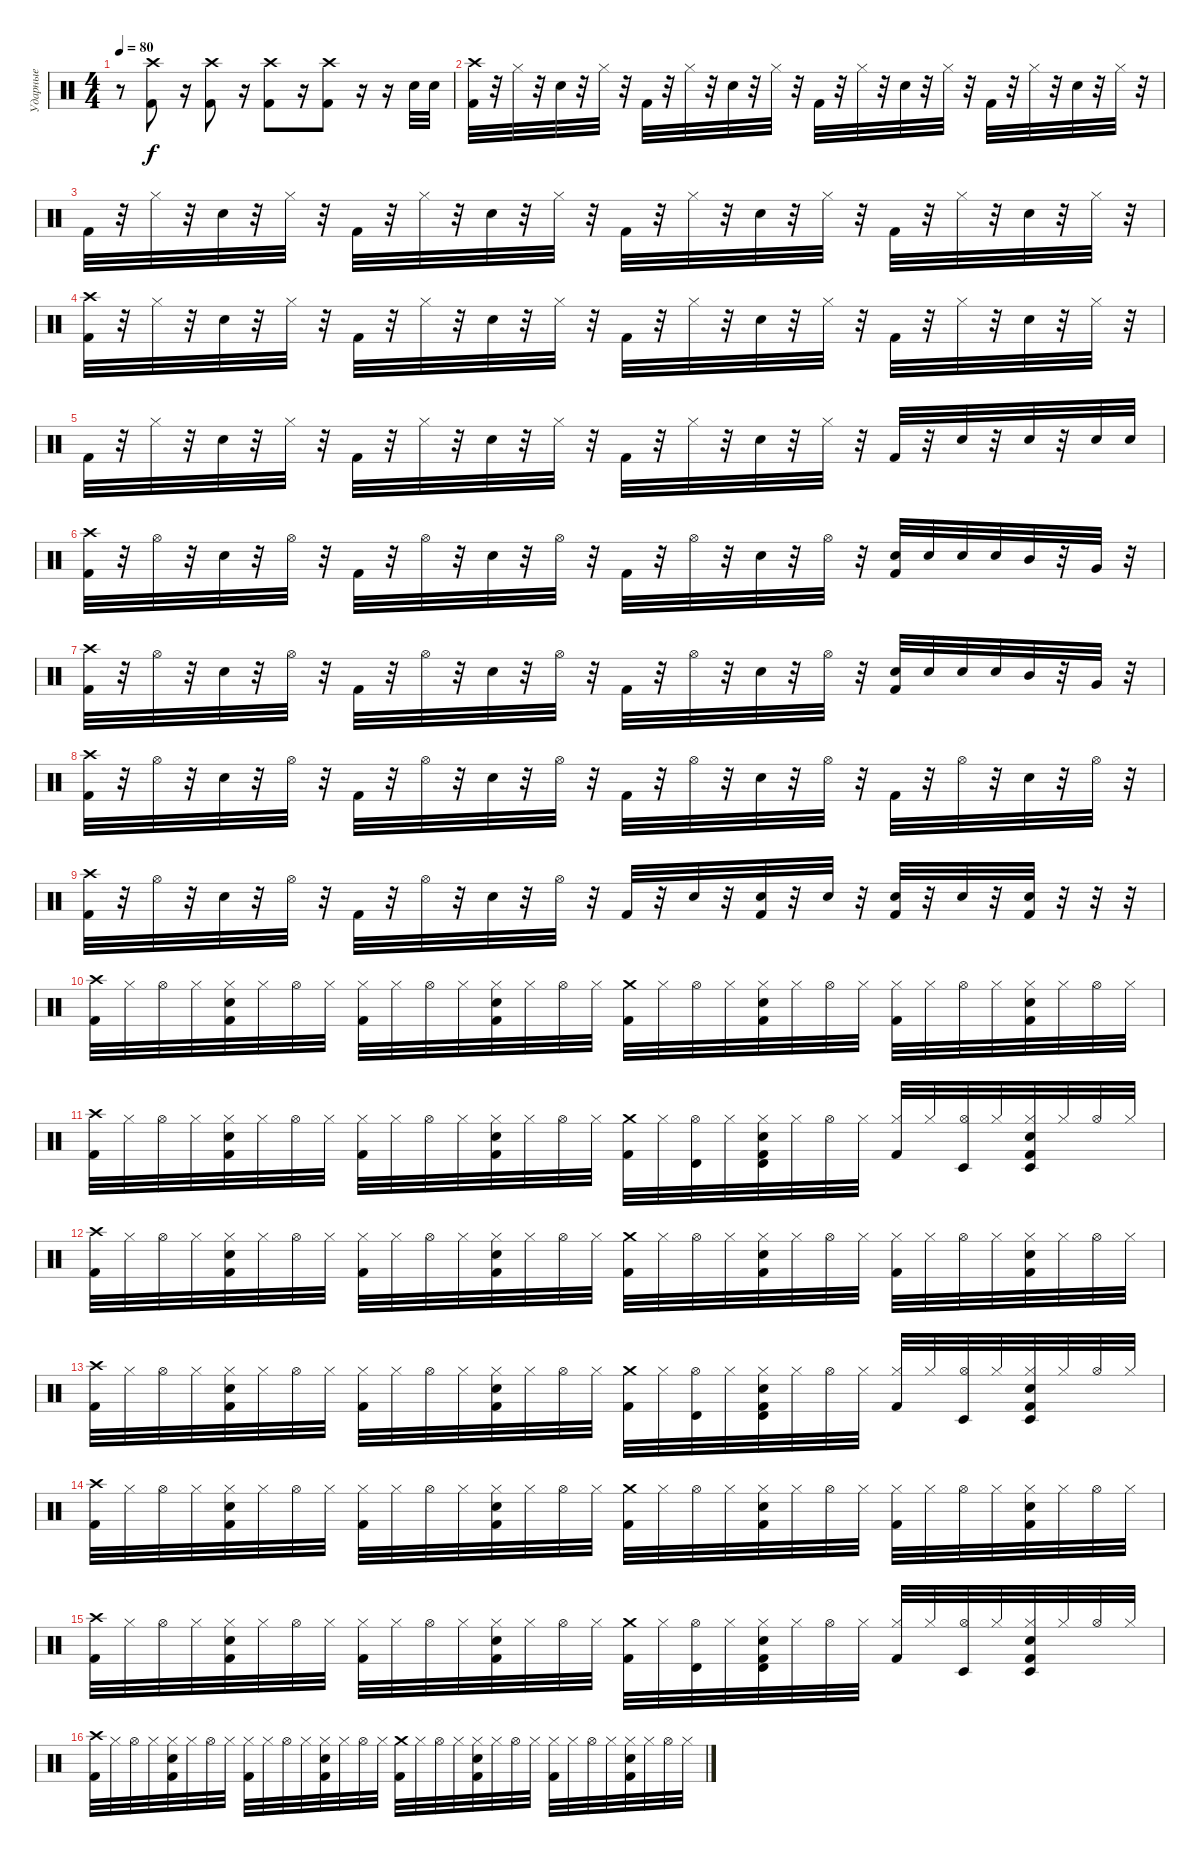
\track ("Ударные" "Ударные") {instrument percussion}
\staff {score}
\articulation defaults
\ts (4 4)
\tempo 80
\clef neutral
\ks c
r.8{dy f} ("Crash high (hit)" "Kick (hit) 2").8 r.16 ("Crash high (hit)" "Kick (hit) 2").8 r.16 ("Crash high (hit)" "Kick (hit) 2").8 r.16 ("Crash high (hit)" "Kick (hit) 2").8 r.16 r.16 "Snare (hit) 2".32 "Snare (hit) 2".32 |
("Crash high (hit)" "Kick (hit) 2").32 r.32 "Hi-Hat (closed)".32 r.32 "Snare (hit) 2".32 r.32 "Hi-Hat (closed)".32 r.32 "Kick (hit) 2".32 r.32 "Hi-Hat (closed)".32 r.32 "Snare (hit) 2".32 r.32 "Hi-Hat (closed)".32 r.32 "Kick (hit) 2".32 r.32 "Hi-Hat (closed)".32 r.32 "Snare (hit) 2".32 r.32 "Hi-Hat (closed)".32 r.32 "Kick (hit) 2".32 r.32 "Hi-Hat (closed)".32 r.32 "Snare (hit) 2".32 r.32 "Hi-Hat (closed)".32 r.32 |
"Kick (hit) 2".32 r.32 "Hi-Hat (closed)".32 r.32 "Snare (hit) 2".32 r.32 "Hi-Hat (closed)".32 r.32 "Kick (hit) 2".32 r.32 "Hi-Hat (closed)".32 r.32 "Snare (hit) 2".32 r.32 "Hi-Hat (closed)".32 r.32 "Kick (hit) 2".32 r.32 "Hi-Hat (closed)".32 r.32 "Snare (hit) 2".32 r.32 "Hi-Hat (closed)".32 r.32 "Kick (hit) 2".32 r.32 "Hi-Hat (closed)".32 r.32 "Snare (hit) 2".32 r.32 "Hi-Hat (closed)".32 r.32 |
("Crash high (hit)" "Kick (hit) 2").32 r.32 "Hi-Hat (closed)".32 r.32 "Snare (hit) 2".32 r.32 "Hi-Hat (closed)".32 r.32 "Kick (hit) 2".32 r.32 "Hi-Hat (closed)".32 r.32 "Snare (hit) 2".32 r.32 "Hi-Hat (closed)".32 r.32 "Kick (hit) 2".32 r.32 "Hi-Hat (closed)".32 r.32 "Snare (hit) 2".32 r.32 "Hi-Hat (closed)".32 r.32 "Kick (hit) 2".32 r.32 "Hi-Hat (closed)".32 r.32 "Snare (hit) 2".32 r.32 "Hi-Hat (closed)".32 r.32 |
"Kick (hit) 2".32 r.32 "Hi-Hat (closed)".32 r.32 "Snare (hit) 2".32 r.32 "Hi-Hat (closed)".32 r.32 "Kick (hit) 2".32 r.32 "Hi-Hat (closed)".32 r.32 "Snare (hit) 2".32 r.32 "Hi-Hat (closed)".32 r.32 "Kick (hit) 2".32 r.32 "Hi-Hat (closed)".32 r.32 "Snare (hit) 2".32 r.32 "Hi-Hat (closed)".32 r.32 "Kick (hit) 2".32 r.32 "Snare (hit) 2".32 r.32 "Snare (hit) 2".32 r.32 "Snare (hit) 2".32 "Snare (hit) 2".32 |
("Crash high (hit)" "Kick (hit) 2").32 r.32 "Hi-Hat (open)".32 r.32 "Snare (hit) 2".32 r.32 "Hi-Hat (open)".32 r.32 "Kick (hit) 2".32 r.32 "Hi-Hat (open)".32 r.32 "Snare (hit) 2".32 r.32 "Hi-Hat (open)".32 r.32 "Kick (hit) 2".32 r.32 "Hi-Hat (open)".32 r.32 "Snare (hit) 2".32 r.32 "Hi-Hat (open)".32 r.32 ("Snare (hit) 2" "Kick (hit) 2").32 "Snare (hit) 2".32 "Snare (hit) 2".32 "Snare (hit) 2".32 "Mid Tom (hit)".32 r.32 "Very Low Tom (hit)".32 r.32 |
("Crash high (hit)" "Kick (hit) 2").32 r.32 "Hi-Hat (open)".32 r.32 "Snare (hit) 2".32 r.32 "Hi-Hat (open)".32 r.32 "Kick (hit) 2".32 r.32 "Hi-Hat (open)".32 r.32 "Snare (hit) 2".32 r.32 "Hi-Hat (open)".32 r.32 "Kick (hit) 2".32 r.32 "Hi-Hat (open)".32 r.32 "Snare (hit) 2".32 r.32 "Hi-Hat (open)".32 r.32 ("Snare (hit) 2" "Kick (hit) 2").32 "Snare (hit) 2".32 "Snare (hit) 2".32 "Snare (hit) 2".32 "Mid Tom (hit)".32 r.32 "Very Low Tom (hit)".32 r.32 |
("Crash high (hit)" "Kick (hit) 2").32 r.32 "Hi-Hat (open)".32 r.32 "Snare (hit) 2".32 r.32 "Hi-Hat (open)".32 r.32 "Kick (hit) 2".32 r.32 "Hi-Hat (open)".32 r.32 "Snare (hit) 2".32 r.32 "Hi-Hat (open)".32 r.32 "Kick (hit) 2".32 r.32 "Hi-Hat (open)".32 r.32 "Snare (hit) 2".32 r.32 "Hi-Hat (open)".32 r.32 "Kick (hit) 2".32 r.32 "Hi-Hat (open)".32 r.32 "Snare (hit) 2".32 r.32 "Hi-Hat (open)".32 r.32 |
("Crash high (hit)" "Kick (hit) 2").32 r.32 "Hi-Hat (open)".32 r.32 "Snare (hit) 2".32 r.32 "Hi-Hat (open)".32 r.32 "Kick (hit) 2".32 r.32 "Hi-Hat (open)".32 r.32 "Snare (hit) 2".32 r.32 "Hi-Hat (open)".32 r.32 "Kick (hit) 2".32 r.32 "Snare (hit) 2".32 r.32 ("Snare (hit) 2" "Kick (hit) 2").32 r.32 "Snare (hit) 2".32 r.32 ("Snare (hit) 2" "Kick (hit) 2").32 r.32 "Snare (hit) 2".32 r.32 ("Snare (hit) 2" "Kick (hit) 2").32 r.32 r.32 r.32 |
("Crash high (hit)" "Kick (hit) 2").32 "Hi-Hat (closed)".32 "Hi-Hat (open)".32 "Hi-Hat (closed)".32 ("Hi-Hat (closed)" "Snare (hit) 2" "Kick (hit) 2").32 "Hi-Hat (closed)".32 "Hi-Hat (open)".32 "Hi-Hat (closed)".32 ("Hi-Hat (closed)" "Kick (hit) 2").32 "Hi-Hat (closed)".32 "Hi-Hat (open)".32 "Hi-Hat (closed)".32 ("Hi-Hat (closed)" "Snare (hit) 2" "Kick (hit) 2").32 "Hi-Hat (closed)".32 "Hi-Hat (open)".32 "Hi-Hat (closed)".32 ("Crash medium (hit)" "Kick (hit) 2").32 "Hi-Hat (closed)".32 "Hi-Hat (open)".32 "Hi-Hat (closed)".32 ("Hi-Hat (closed)" "Snare (hit) 2" "Kick (hit) 2").32 "Hi-Hat (closed)".32 "Hi-Hat (open)".32 "Hi-Hat (closed)".32 ("Hi-Hat (closed)" "Kick (hit) 2").32 "Hi-Hat (closed)".32 "Hi-Hat (open)".32 "Hi-Hat (closed)".32 ("Hi-Hat (closed)" "Snare (hit) 2" "Kick (hit) 2").32 "Hi-Hat (closed)".32 "Hi-Hat (open)".32 "Hi-Hat (closed)".32 |
("Crash high (hit)" "Kick (hit) 2").32 "Hi-Hat (closed)".32 "Hi-Hat (open)".32 "Hi-Hat (closed)".32 ("Hi-Hat (closed)" "Snare (hit) 2" "Kick (hit) 2").32 "Hi-Hat (closed)".32 "Hi-Hat (open)".32 "Hi-Hat (closed)".32 ("Hi-Hat (closed)" "Kick (hit) 2").32 "Hi-Hat (closed)".32 "Hi-Hat (open)".32 "Hi-Hat (closed)".32 ("Hi-Hat (closed)" "Snare (hit) 2" "Kick (hit) 2").32 "Hi-Hat (closed)".32 "Hi-Hat (open)".32 "Hi-Hat (closed)".32 ("Crash medium (hit)" "Kick (hit) 2").32 "Hi-Hat (closed)".32 ("Hi-Hat (open)" "Timbale high (hit)").32 "Hi-Hat (closed)".32 ("Hi-Hat (closed)" "Snare (hit) 2" "Kick (hit) 2" "Timbale high (hit)").32 "Hi-Hat (closed)".32 "Hi-Hat (open)".32 "Hi-Hat (closed)".32 ("Hi-Hat (closed)" "Kick (hit) 2").32 "Hi-Hat (closed)".32 ("Hi-Hat (open)" "Timbale low (hit)").32 "Hi-Hat (closed)".32 ("Hi-Hat (closed)" "Snare (hit) 2" "Kick (hit) 2" "Timbale low (hit)").32 "Hi-Hat (closed)".32 "Hi-Hat (open)".32 "Hi-Hat (closed)".32 |
("Crash high (hit)" "Kick (hit) 2").32 "Hi-Hat (closed)".32 "Hi-Hat (open)".32 "Hi-Hat (closed)".32 ("Hi-Hat (closed)" "Snare (hit) 2" "Kick (hit) 2").32 "Hi-Hat (closed)".32 "Hi-Hat (open)".32 "Hi-Hat (closed)".32 ("Hi-Hat (closed)" "Kick (hit) 2").32 "Hi-Hat (closed)".32 "Hi-Hat (open)".32 "Hi-Hat (closed)".32 ("Hi-Hat (closed)" "Snare (hit) 2" "Kick (hit) 2").32 "Hi-Hat (closed)".32 "Hi-Hat (open)".32 "Hi-Hat (closed)".32 ("Crash medium (hit)" "Kick (hit) 2").32 "Hi-Hat (closed)".32 "Hi-Hat (open)".32 "Hi-Hat (closed)".32 ("Hi-Hat (closed)" "Snare (hit) 2" "Kick (hit) 2").32 "Hi-Hat (closed)".32 "Hi-Hat (open)".32 "Hi-Hat (closed)".32 ("Hi-Hat (closed)" "Kick (hit) 2").32 "Hi-Hat (closed)".32 "Hi-Hat (open)".32 "Hi-Hat (closed)".32 ("Hi-Hat (closed)" "Snare (hit) 2" "Kick (hit) 2").32 "Hi-Hat (closed)".32 "Hi-Hat (open)".32 "Hi-Hat (closed)".32 |
("Crash high (hit)" "Kick (hit) 2").32 "Hi-Hat (closed)".32 "Hi-Hat (open)".32 "Hi-Hat (closed)".32 ("Hi-Hat (closed)" "Snare (hit) 2" "Kick (hit) 2").32 "Hi-Hat (closed)".32 "Hi-Hat (open)".32 "Hi-Hat (closed)".32 ("Hi-Hat (closed)" "Kick (hit) 2").32 "Hi-Hat (closed)".32 "Hi-Hat (open)".32 "Hi-Hat (closed)".32 ("Hi-Hat (closed)" "Snare (hit) 2" "Kick (hit) 2").32 "Hi-Hat (closed)".32 "Hi-Hat (open)".32 "Hi-Hat (closed)".32 ("Crash medium (hit)" "Kick (hit) 2").32 "Hi-Hat (closed)".32 ("Hi-Hat (open)" "Timbale high (hit)").32 "Hi-Hat (closed)".32 ("Hi-Hat (closed)" "Snare (hit) 2" "Kick (hit) 2" "Timbale high (hit)").32 "Hi-Hat (closed)".32 "Hi-Hat (open)".32 "Hi-Hat (closed)".32 ("Hi-Hat (closed)" "Kick (hit) 2").32 "Hi-Hat (closed)".32 ("Hi-Hat (open)" "Timbale low (hit)").32 "Hi-Hat (closed)".32 ("Hi-Hat (closed)" "Snare (hit) 2" "Kick (hit) 2" "Timbale low (hit)").32 "Hi-Hat (closed)".32 "Hi-Hat (open)".32 "Hi-Hat (closed)".32 |
("Crash high (hit)" "Kick (hit) 2").32 "Hi-Hat (closed)".32 "Hi-Hat (open)".32 "Hi-Hat (closed)".32 ("Hi-Hat (closed)" "Snare (hit) 2" "Kick (hit) 2").32 "Hi-Hat (closed)".32 "Hi-Hat (open)".32 "Hi-Hat (closed)".32 ("Hi-Hat (closed)" "Kick (hit) 2").32 "Hi-Hat (closed)".32 "Hi-Hat (open)".32 "Hi-Hat (closed)".32 ("Hi-Hat (closed)" "Snare (hit) 2" "Kick (hit) 2").32 "Hi-Hat (closed)".32 "Hi-Hat (open)".32 "Hi-Hat (closed)".32 ("Crash medium (hit)" "Kick (hit) 2").32 "Hi-Hat (closed)".32 "Hi-Hat (open)".32 "Hi-Hat (closed)".32 ("Hi-Hat (closed)" "Snare (hit) 2" "Kick (hit) 2").32 "Hi-Hat (closed)".32 "Hi-Hat (open)".32 "Hi-Hat (closed)".32 ("Hi-Hat (closed)" "Kick (hit) 2").32 "Hi-Hat (closed)".32 "Hi-Hat (open)".32 "Hi-Hat (closed)".32 ("Hi-Hat (closed)" "Snare (hit) 2" "Kick (hit) 2").32 "Hi-Hat (closed)".32 "Hi-Hat (open)".32 "Hi-Hat (closed)".32 |
("Crash high (hit)" "Kick (hit) 2").32 "Hi-Hat (closed)".32 "Hi-Hat (open)".32 "Hi-Hat (closed)".32 ("Hi-Hat (closed)" "Snare (hit) 2" "Kick (hit) 2").32 "Hi-Hat (closed)".32 "Hi-Hat (open)".32 "Hi-Hat (closed)".32 ("Hi-Hat (closed)" "Kick (hit) 2").32 "Hi-Hat (closed)".32 "Hi-Hat (open)".32 "Hi-Hat (closed)".32 ("Hi-Hat (closed)" "Snare (hit) 2" "Kick (hit) 2").32 "Hi-Hat (closed)".32 "Hi-Hat (open)".32 "Hi-Hat (closed)".32 ("Crash medium (hit)" "Kick (hit) 2").32 "Hi-Hat (closed)".32 ("Hi-Hat (open)" "Timbale high (hit)").32 "Hi-Hat (closed)".32 ("Hi-Hat (closed)" "Snare (hit) 2" "Kick (hit) 2" "Timbale high (hit)").32 "Hi-Hat (closed)".32 "Hi-Hat (open)".32 "Hi-Hat (closed)".32 ("Hi-Hat (closed)" "Kick (hit) 2").32 "Hi-Hat (closed)".32 ("Hi-Hat (open)" "Timbale low (hit)").32 "Hi-Hat (closed)".32 ("Hi-Hat (closed)" "Snare (hit) 2" "Kick (hit) 2" "Timbale low (hit)").32 "Hi-Hat (closed)".32 "Hi-Hat (open)".32 "Hi-Hat (closed)".32 |
("Crash high (hit)" "Kick (hit) 2").32 "Hi-Hat (closed)".32 "Hi-Hat (open)".32 "Hi-Hat (closed)".32 ("Hi-Hat (closed)" "Snare (hit) 2" "Kick (hit) 2").32 "Hi-Hat (closed)".32 "Hi-Hat (open)".32 "Hi-Hat (closed)".32 ("Hi-Hat (closed)" "Kick (hit) 2").32 "Hi-Hat (closed)".32 "Hi-Hat (open)".32 "Hi-Hat (closed)".32 ("Hi-Hat (closed)" "Snare (hit) 2" "Kick (hit) 2").32 "Hi-Hat (closed)".32 "Hi-Hat (open)".32 "Hi-Hat (closed)".32 ("Crash medium (hit)" "Kick (hit) 2").32 "Hi-Hat (closed)".32 "Hi-Hat (open)".32 "Hi-Hat (closed)".32 ("Hi-Hat (closed)" "Snare (hit) 2" "Kick (hit) 2").32 "Hi-Hat (closed)".32 "Hi-Hat (open)".32 "Hi-Hat (closed)".32 ("Hi-Hat (closed)" "Kick (hit) 2").32 "Hi-Hat (closed)".32 "Hi-Hat (open)".32 "Hi-Hat (closed)".32 ("Hi-Hat (closed)" "Snare (hit) 2" "Kick (hit) 2").32 "Hi-Hat (closed)".32 "Hi-Hat (open)".32 "Hi-Hat (closed)".32
